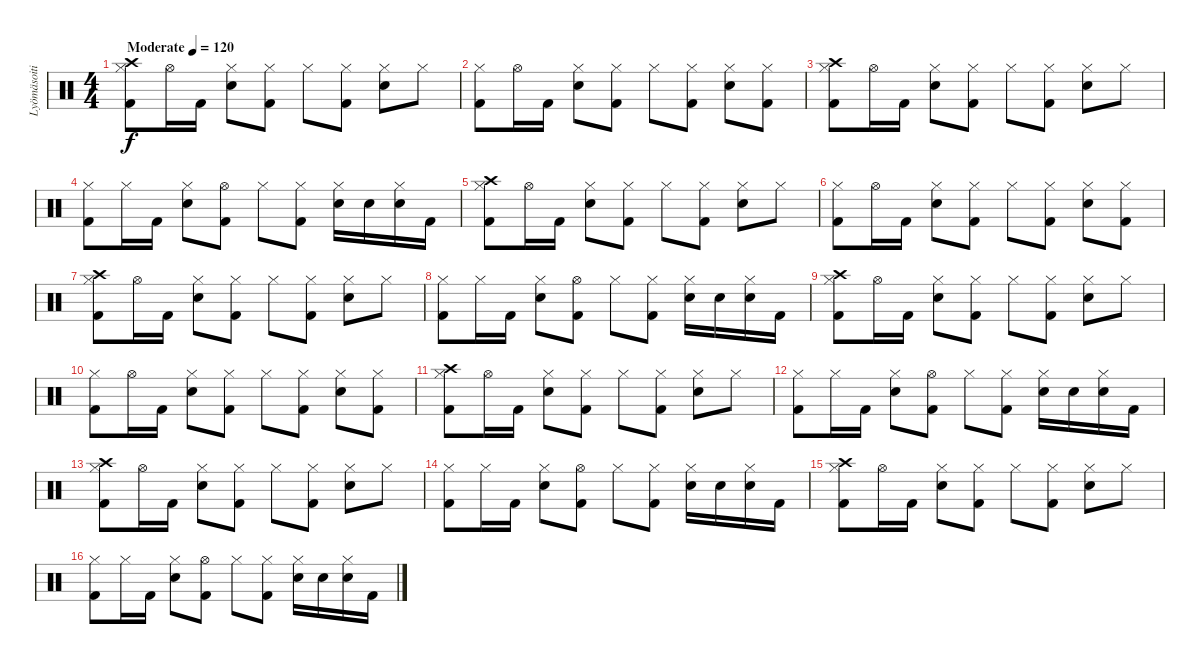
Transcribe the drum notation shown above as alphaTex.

\track ("Lyömäsoitin" "Lyömäsoiti") {instrument percussion}
\staff {score}
\articulation defaults
\ts (4 4)
\tempo (120 "Moderate")
\clef neutral
\ks c
("Crash high (hit)" "Hi-Hat (closed)" "Kick (hit) 2").8{dy f} "Hi-Hat (open)".16 "Kick (hit) 2".16 ("Hi-Hat (closed)" "Snare (hit) 2").8 ("Hi-Hat (closed)" "Kick (hit) 2").8 "Hi-Hat (closed)".8 ("Hi-Hat (closed)" "Kick (hit) 2").8 ("Hi-Hat (closed)" "Snare (hit) 2").8 "Hi-Hat (closed)".8 |
("Hi-Hat (closed)" "Kick (hit) 2").8 "Hi-Hat (open)".16 "Kick (hit) 2".16 ("Hi-Hat (closed)" "Snare (hit) 2").8 ("Hi-Hat (closed)" "Kick (hit) 2").8 "Hi-Hat (closed)".8 ("Hi-Hat (closed)" "Kick (hit) 2").8 ("Hi-Hat (closed)" "Snare (hit) 2").8 ("Hi-Hat (closed)" "Kick (hit) 2").8 |
("Crash high (hit)" "Hi-Hat (closed)" "Kick (hit) 2").8 "Hi-Hat (open)".16 "Kick (hit) 2".16 ("Hi-Hat (closed)" "Snare (hit) 2").8 ("Hi-Hat (closed)" "Kick (hit) 2").8 "Hi-Hat (closed)".8 ("Hi-Hat (closed)" "Kick (hit) 2").8 ("Hi-Hat (closed)" "Snare (hit) 2").8 "Hi-Hat (closed)".8 |
("Hi-Hat (closed)" "Kick (hit) 2").8 "Hi-Hat (closed)".16 "Kick (hit) 2".16 ("Hi-Hat (closed)" "Snare (hit) 2").8 ("Hi-Hat (open)" "Kick (hit) 2").8 "Hi-Hat (closed)".8 ("Hi-Hat (closed)" "Kick (hit) 2").8 ("Hi-Hat (closed)" "Snare (hit) 2").16 "Snare (hit) 2".16 ("Hi-Hat (closed)" "Snare (hit) 2").16 "Kick (hit) 2".16 |
("Crash high (hit)" "Hi-Hat (closed)" "Kick (hit) 2").8 "Hi-Hat (open)".16 "Kick (hit) 2".16 ("Hi-Hat (closed)" "Snare (hit) 2").8 ("Hi-Hat (closed)" "Kick (hit) 2").8 "Hi-Hat (closed)".8 ("Hi-Hat (closed)" "Kick (hit) 2").8 ("Hi-Hat (closed)" "Snare (hit) 2").8 "Hi-Hat (closed)".8 |
("Hi-Hat (closed)" "Kick (hit) 2").8 "Hi-Hat (open)".16 "Kick (hit) 2".16 ("Hi-Hat (closed)" "Snare (hit) 2").8 ("Hi-Hat (closed)" "Kick (hit) 2").8 "Hi-Hat (closed)".8 ("Hi-Hat (closed)" "Kick (hit) 2").8 ("Hi-Hat (closed)" "Snare (hit) 2").8 ("Hi-Hat (closed)" "Kick (hit) 2").8 |
("Crash high (hit)" "Hi-Hat (closed)" "Kick (hit) 2").8 "Hi-Hat (open)".16 "Kick (hit) 2".16 ("Hi-Hat (closed)" "Snare (hit) 2").8 ("Hi-Hat (closed)" "Kick (hit) 2").8 "Hi-Hat (closed)".8 ("Hi-Hat (closed)" "Kick (hit) 2").8 ("Hi-Hat (closed)" "Snare (hit) 2").8 "Hi-Hat (closed)".8 |
("Hi-Hat (closed)" "Kick (hit) 2").8 "Hi-Hat (closed)".16 "Kick (hit) 2".16 ("Hi-Hat (closed)" "Snare (hit) 2").8 ("Hi-Hat (open)" "Kick (hit) 2").8 "Hi-Hat (closed)".8 ("Hi-Hat (closed)" "Kick (hit) 2").8 ("Hi-Hat (closed)" "Snare (hit) 2").16 "Snare (hit) 2".16 ("Hi-Hat (closed)" "Snare (hit) 2").16 "Kick (hit) 2".16 |
("Crash high (hit)" "Hi-Hat (closed)" "Kick (hit) 2").8 "Hi-Hat (open)".16 "Kick (hit) 2".16 ("Hi-Hat (closed)" "Snare (hit) 2").8 ("Hi-Hat (closed)" "Kick (hit) 2").8 "Hi-Hat (closed)".8 ("Hi-Hat (closed)" "Kick (hit) 2").8 ("Hi-Hat (closed)" "Snare (hit) 2").8 "Hi-Hat (closed)".8 |
("Hi-Hat (closed)" "Kick (hit) 2").8 "Hi-Hat (open)".16 "Kick (hit) 2".16 ("Hi-Hat (closed)" "Snare (hit) 2").8 ("Hi-Hat (closed)" "Kick (hit) 2").8 "Hi-Hat (closed)".8 ("Hi-Hat (closed)" "Kick (hit) 2").8 ("Hi-Hat (closed)" "Snare (hit) 2").8 ("Hi-Hat (closed)" "Kick (hit) 2").8 |
("Crash high (hit)" "Hi-Hat (closed)" "Kick (hit) 2").8 "Hi-Hat (open)".16 "Kick (hit) 2".16 ("Hi-Hat (closed)" "Snare (hit) 2").8 ("Hi-Hat (closed)" "Kick (hit) 2").8 "Hi-Hat (closed)".8 ("Hi-Hat (closed)" "Kick (hit) 2").8 ("Hi-Hat (closed)" "Snare (hit) 2").8 "Hi-Hat (closed)".8 |
("Hi-Hat (closed)" "Kick (hit) 2").8 "Hi-Hat (closed)".16 "Kick (hit) 2".16 ("Hi-Hat (closed)" "Snare (hit) 2").8 ("Hi-Hat (open)" "Kick (hit) 2").8 "Hi-Hat (closed)".8 ("Hi-Hat (closed)" "Kick (hit) 2").8 ("Hi-Hat (closed)" "Snare (hit) 2").16 "Snare (hit) 2".16 ("Hi-Hat (closed)" "Snare (hit) 2").16 "Kick (hit) 2".16 |
("Crash high (hit)" "Hi-Hat (closed)" "Kick (hit) 2").8 "Hi-Hat (open)".16 "Kick (hit) 2".16 ("Hi-Hat (closed)" "Snare (hit) 2").8 ("Hi-Hat (closed)" "Kick (hit) 2").8 "Hi-Hat (closed)".8 ("Hi-Hat (closed)" "Kick (hit) 2").8 ("Hi-Hat (closed)" "Snare (hit) 2").8 "Hi-Hat (closed)".8 |
("Hi-Hat (closed)" "Kick (hit) 2").8 "Hi-Hat (closed)".16 "Kick (hit) 2".16 ("Hi-Hat (closed)" "Snare (hit) 2").8 ("Hi-Hat (open)" "Kick (hit) 2").8 "Hi-Hat (closed)".8 ("Hi-Hat (closed)" "Kick (hit) 2").8 ("Hi-Hat (closed)" "Snare (hit) 2").16 "Snare (hit) 2".16 ("Hi-Hat (closed)" "Snare (hit) 2").16 "Kick (hit) 2".16 |
("Crash high (hit)" "Hi-Hat (closed)" "Kick (hit) 2").8 "Hi-Hat (open)".16 "Kick (hit) 2".16 ("Hi-Hat (closed)" "Snare (hit) 2").8 ("Hi-Hat (closed)" "Kick (hit) 2").8 "Hi-Hat (closed)".8 ("Hi-Hat (closed)" "Kick (hit) 2").8 ("Hi-Hat (closed)" "Snare (hit) 2").8 "Hi-Hat (closed)".8 |
("Hi-Hat (closed)" "Kick (hit) 2").8 "Hi-Hat (closed)".16 "Kick (hit) 2".16 ("Hi-Hat (closed)" "Snare (hit) 2").8 ("Hi-Hat (open)" "Kick (hit) 2").8 "Hi-Hat (closed)".8 ("Hi-Hat (closed)" "Kick (hit) 2").8 ("Hi-Hat (closed)" "Snare (hit) 2").16 "Snare (hit) 2".16 ("Hi-Hat (closed)" "Snare (hit) 2").16 "Kick (hit) 2".16
